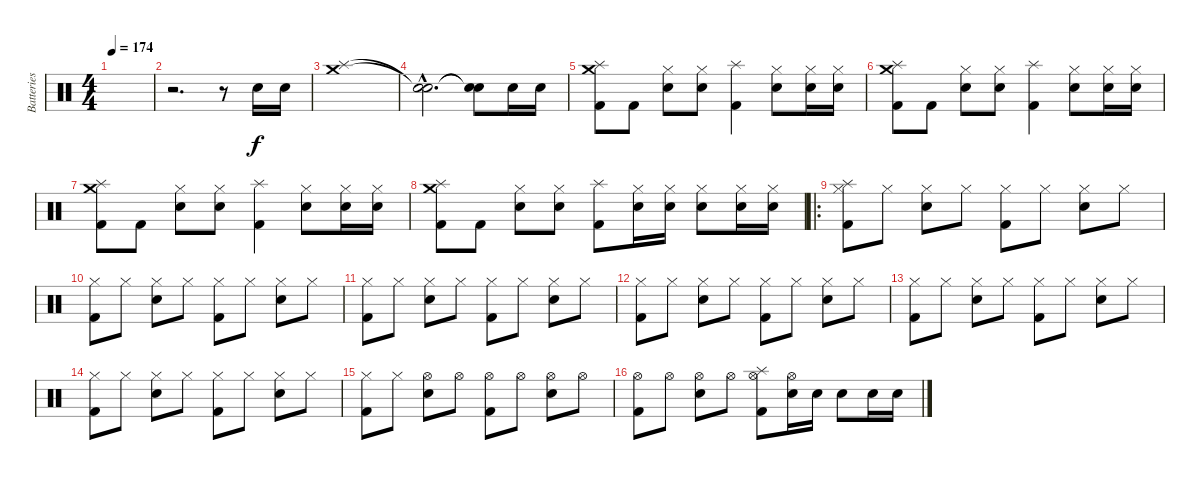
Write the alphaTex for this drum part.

\track ("Batteries" "Batteries") {instrument percussion}
\staff {score}
\articulation defaults
\ts (4 4)
\tempo 174
\clef neutral
\ks c
|
r.2{d} r.8 "Electric Snare (hit)".16 "Electric Snare (hit)".16 |
("Splash (hit)" "Crash medium (hit)").1 |
("Snare (hit)"{hac t} "Snare (hit)"{hac t}).2{d} ("Snare (hit)"{t} "Snare (hit)"{t}).8 "Electric Snare (hit)".16 "Electric Snare (hit)".16 |
("Splash (hit)" "Crash medium (hit)" "Kick (hit) 2").8 "Kick (hit) 2".8 ("Hi-Hat (closed)" "Electric Snare (hit)").8 ("Hi-Hat (closed)" "Electric Snare (hit)").8 ("Splash (hit)" "Kick (hit) 2").4 ("Hi-Hat (closed)" "Electric Snare (hit)").8 ("Hi-Hat (closed)" "Electric Snare (hit)").16 ("Hi-Hat (closed)" "Electric Snare (hit)").16 |
("Splash (hit)" "Crash medium (hit)" "Kick (hit) 2").8 "Kick (hit) 2".8 ("Hi-Hat (closed)" "Electric Snare (hit)").8 ("Hi-Hat (closed)" "Electric Snare (hit)").8 ("Splash (hit)" "Kick (hit) 2").4 ("Hi-Hat (closed)" "Electric Snare (hit)").8 ("Hi-Hat (closed)" "Electric Snare (hit)").16 ("Hi-Hat (closed)" "Electric Snare (hit)").16 |
("Splash (hit)" "Crash medium (hit)" "Kick (hit) 2").8 "Kick (hit) 2".8 ("Hi-Hat (closed)" "Electric Snare (hit)").8 ("Hi-Hat (closed)" "Electric Snare (hit)").8 ("Splash (hit)" "Kick (hit) 2").4 ("Hi-Hat (closed)" "Electric Snare (hit)").8 ("Hi-Hat (closed)" "Electric Snare (hit)").16 ("Hi-Hat (closed)" "Electric Snare (hit)").16 |
("Splash (hit)" "Crash medium (hit)" "Kick (hit) 2").8 "Kick (hit) 2".8 ("Hi-Hat (closed)" "Electric Snare (hit)").8 ("Hi-Hat (closed)" "Electric Snare (hit)").8 ("Splash (hit)" "Kick (hit) 2").8 ("Hi-Hat (closed)" "Electric Snare (hit)").16 ("Hi-Hat (closed)" "Electric Snare (hit)").16 ("Hi-Hat (closed)" "Electric Snare (hit)").8 ("Hi-Hat (closed)" "Electric Snare (hit)").16 ("Hi-Hat (closed)" "Electric Snare (hit)").16 |
\ro
("Hi-Hat (closed)" "Splash (hit)" "Kick (hit) 2").8 "Hi-Hat (closed)".8 ("Hi-Hat (closed)" "Electric Snare (hit)").8 "Hi-Hat (closed)".8 ("Hi-Hat (closed)" "Kick (hit) 2").8 "Hi-Hat (closed)".8 ("Hi-Hat (closed)" "Electric Snare (hit)").8 "Hi-Hat (closed)".8 |
("Hi-Hat (closed)" "Kick (hit) 2").8 "Hi-Hat (closed)".8 ("Hi-Hat (closed)" "Electric Snare (hit)").8 "Hi-Hat (closed)".8 ("Hi-Hat (closed)" "Kick (hit) 2").8 "Hi-Hat (closed)".8 ("Hi-Hat (closed)" "Electric Snare (hit)").8 "Hi-Hat (closed)".8 |
("Hi-Hat (closed)" "Kick (hit) 2").8 "Hi-Hat (closed)".8 ("Hi-Hat (closed)" "Electric Snare (hit)").8 "Hi-Hat (closed)".8 ("Hi-Hat (closed)" "Kick (hit) 2").8 "Hi-Hat (closed)".8 ("Hi-Hat (closed)" "Electric Snare (hit)").8 "Hi-Hat (closed)".8 |
("Hi-Hat (closed)" "Kick (hit) 2").8 "Hi-Hat (closed)".8 ("Hi-Hat (closed)" "Electric Snare (hit)").8 "Hi-Hat (closed)".8 ("Hi-Hat (closed)" "Kick (hit) 2").8 "Hi-Hat (closed)".8 ("Hi-Hat (closed)" "Electric Snare (hit)").8 "Hi-Hat (closed)".8 |
("Hi-Hat (closed)" "Kick (hit) 2").8 "Hi-Hat (closed)".8 ("Hi-Hat (closed)" "Electric Snare (hit)").8 "Hi-Hat (closed)".8 ("Hi-Hat (closed)" "Kick (hit) 2").8 "Hi-Hat (closed)".8 ("Hi-Hat (closed)" "Electric Snare (hit)").8 "Hi-Hat (closed)".8 |
("Hi-Hat (closed)" "Kick (hit) 2").8 "Hi-Hat (closed)".8 ("Hi-Hat (closed)" "Electric Snare (hit)").8 "Hi-Hat (closed)".8 ("Hi-Hat (closed)" "Kick (hit) 2").8 "Hi-Hat (closed)".8 ("Hi-Hat (closed)" "Electric Snare (hit)").8 "Hi-Hat (closed)".8 |
("Hi-Hat (closed)" "Kick (hit) 2").8 "Hi-Hat (closed)".8 ("Hi-Hat (open)" "Electric Snare (hit)").8 "Hi-Hat (open)".8 ("Hi-Hat (open)" "Kick (hit) 2").8 "Hi-Hat (open)".8 ("Hi-Hat (open)" "Electric Snare (hit)").8 "Hi-Hat (open)".8 |
("Hi-Hat (open)" "Kick (hit) 2").8 "Hi-Hat (open)".8 ("Hi-Hat (open)" "Electric Snare (hit)").8 "Hi-Hat (open)".8 ("Hi-Hat (open)" "Splash (hit)" "Kick (hit) 2").8 ("Hi-Hat (open)" "Electric Snare (hit)").16 "Electric Snare (hit)".16 "Electric Snare (hit)".8 "Electric Snare (hit)".16 "Electric Snare (hit)".16
